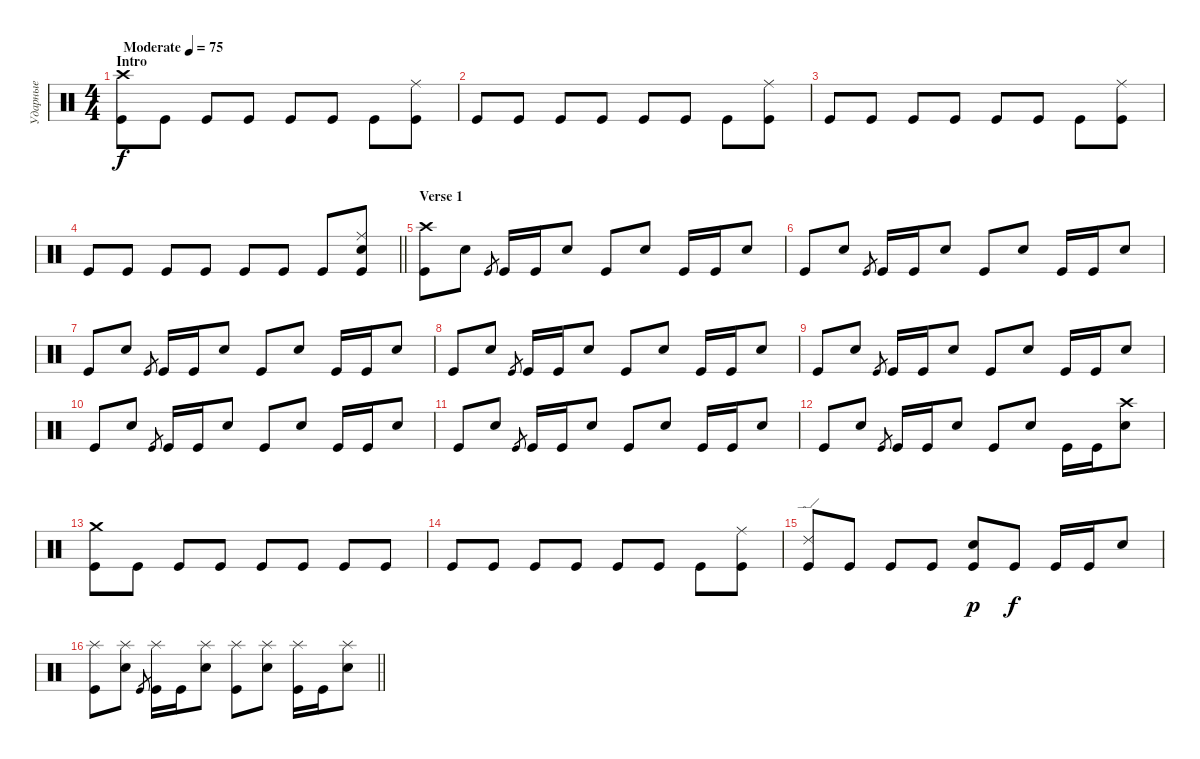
\track ("Ударные" "Ударные") {instrument percussion}
\staff {score}
\articulation defaults
\ts (4 4)
\section ("" "Intro")
\tempo (75 "Moderate")
\clef neutral
\ks c
("Kick (hit)" "Crash high (hit)").8{dy f} "Kick (hit)".8 "Kick (hit)".8 "Kick (hit)".8 "Kick (hit)".8 "Kick (hit)".8 "Kick (hit)".8 ("Kick (hit)" "Ride (middle)").8 |
"Kick (hit)".8 "Kick (hit)".8 "Kick (hit)".8 "Kick (hit)".8 "Kick (hit)".8 "Kick (hit)".8 "Kick (hit)".8 ("Kick (hit)" "Ride (middle)").8 |
"Kick (hit)".8 "Kick (hit)".8 "Kick (hit)".8 "Kick (hit)".8 "Kick (hit)".8 "Kick (hit)".8 "Kick (hit)".8 ("Kick (hit)" "Ride (middle)").8 |
\barLineRight lightlight "Kick (hit)".8 "Kick (hit)".8 "Kick (hit)".8 "Kick (hit)".8 "Kick (hit)".8 "Kick (hit)".8 "Kick (hit)".8
("Kick (hit)" "Ride (middle)" "Snare (hit) 2").8 |
\section ("" "Verse 1")
("Kick (hit)" "Crash high (hit)").8 "Snare (hit) 2".8 "Kick (hit)".8{gr} "Kick (hit)".16 "Kick (hit)".16 "Snare (hit) 2".8 "Kick (hit)".8 "Snare (hit) 2".8 "Kick (hit)".16 "Kick (hit)".16 "Snare (hit) 2".8 |
"Kick (hit)".8 "Snare (hit) 2".8 "Kick (hit)".8{gr} "Kick (hit)".16 "Kick (hit)".16 "Snare (hit) 2".8 "Kick (hit)".8 "Snare (hit) 2".8 "Kick (hit)".16 "Kick (hit)".16 "Snare (hit) 2".8 |
"Kick (hit)".8 "Snare (hit) 2".8 "Kick (hit)".8{gr} "Kick (hit)".16 "Kick (hit)".16 "Snare (hit) 2".8 "Kick (hit)".8 "Snare (hit) 2".8 "Kick (hit)".16 "Kick (hit)".16 "Snare (hit) 2".8 |
"Kick (hit)".8 "Snare (hit) 2".8 "Kick (hit)".8{gr} "Kick (hit)".16 "Kick (hit)".16 "Snare (hit) 2".8 "Kick (hit)".8 "Snare (hit) 2".8 "Kick (hit)".16 "Kick (hit)".16 "Snare (hit) 2".8 |
"Kick (hit)".8 "Snare (hit) 2".8 "Kick (hit)".8{gr} "Kick (hit)".16 "Kick (hit)".16 "Snare (hit) 2".8 "Kick (hit)".8 "Snare (hit) 2".8 "Kick (hit)".16 "Kick (hit)".16 "Snare (hit) 2".8 |
"Kick (hit)".8 "Snare (hit) 2".8 "Kick (hit)".8{gr} "Kick (hit)".16 "Kick (hit)".16 "Snare (hit) 2".8 "Kick (hit)".8 "Snare (hit) 2".8 "Kick (hit)".16 "Kick (hit)".16 "Snare (hit) 2".8 |
"Kick (hit)".8 "Snare (hit) 2".8 "Kick (hit)".8{gr} "Kick (hit)".16 "Kick (hit)".16 "Snare (hit) 2".8 "Kick (hit)".8 "Snare (hit) 2".8 "Kick (hit)".16 "Kick (hit)".16 "Snare (hit) 2".8 |
"Kick (hit)".8 "Snare (hit) 2".8 "Kick (hit)".8{gr} "Kick (hit)".16 "Kick (hit)".16 "Snare (hit) 2".8 "Kick (hit)".8 "Snare (hit) 2".8 "Kick (hit)".16 "Kick (hit)".16 ("Snare (hit) 2" "Crash high (hit)").8 |
("Kick (hit)" "Crash medium (hit)").8 "Kick (hit)".8 "Kick (hit)".8 "Kick (hit)".8 "Kick (hit)".8 "Kick (hit)".8 "Kick (hit)".8 "Kick (hit)".8 |
"Kick (hit)".8 "Kick (hit)".8 "Kick (hit)".8 "Kick (hit)".8 "Kick (hit)".8 "Kick (hit)".8 "Kick (hit)".8 ("Kick (hit)" "Ride (middle)").8 |
("Kick (hit)" "Ride (edge) 2").8 "Kick (hit)".8 "Kick (hit)".8 "Kick (hit)".8 ("Kick (hit)" "Snare (hit) 2").8{dy p} "Kick (hit)".8{dy f} "Kick (hit)".16 "Kick (hit)".16 "Snare (hit) 2".8 |
\barLineRight lightlight
("Kick (hit)" "Splash (hit)").8 ("Snare (hit) 2" "Splash (hit)").8 "Kick (hit)".8{gr} ("Kick (hit)" "Splash (hit)").16 "Kick (hit)".16 ("Snare (hit) 2" "Splash (hit)").8 ("Kick (hit)" "Splash (hit)").8 ("Snare (hit) 2" "Splash (hit)").8 ("Kick (hit)" "Splash (hit)").16 "Kick (hit)".16 ("Snare (hit) 2" "Splash (hit)").8
